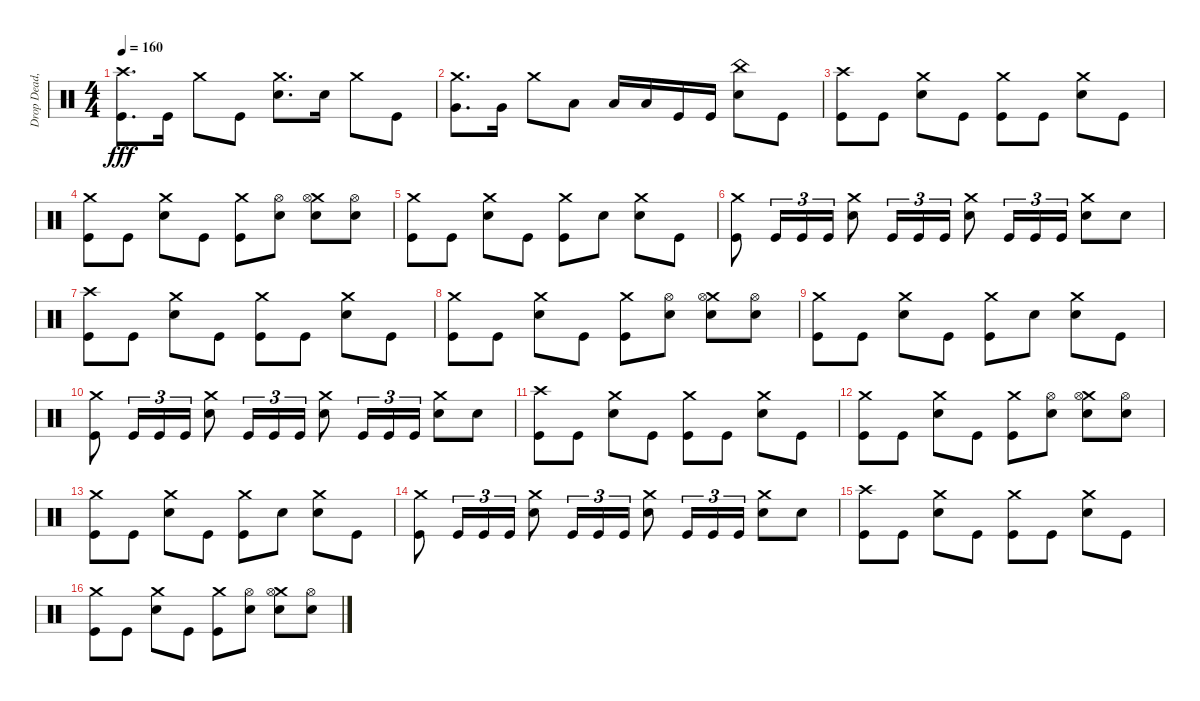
\track ("Drop Dead, Johnny" "Drop Dead,") {instrument percussion}
\staff {score}
\articulation defaults
\ts (4 4)
\tempo 160
\clef neutral
\ks c
("Crash high (hit)" "Kick (hit)").8{d dy fff} "Kick (hit)".16 "Crash medium (hit)".8 "Kick (hit)".8 ("Crash medium (hit)" "Electric Snare (hit)").8{d} "Electric Snare (hit)".16 "Crash medium (hit)".8 "Kick (hit)".8 |
("Crash medium (hit)" "Very Low Tom (hit)").8{d} "Very Low Tom (hit)".16 "Crash medium (hit)".8 "Low Floor Tom (hit)".8 "Low Floor Tom (hit)".16 "Low Floor Tom (hit)".16 "Kick (hit)".16 "Kick (hit)".16 ("China (hit)" "Electric Snare (hit)").8 "Kick (hit)".8 |
("Crash high (hit)" "Kick (hit)").8 "Kick (hit)".8 ("Crash medium (hit)" "Electric Snare (hit)").8 "Kick (hit)".8 ("Crash medium (hit)" "Kick (hit)").8 "Kick (hit)".8 ("Crash medium (hit)" "Electric Snare (hit)").8 "Kick (hit)".8 |
("Crash medium (hit)" "Kick (hit)").8 "Kick (hit)".8 ("Crash medium (hit)" "Electric Snare (hit)").8 "Kick (hit)".8 ("Crash medium (hit)" "Kick (hit)").8 ("Hi-Hat (open)" "Electric Snare (hit)").8 ("Crash medium (hit)" "Hi-Hat (open)" "Electric Snare (hit)").8 ("Hi-Hat (open)" "Electric Snare (hit)").8 |
("Crash medium (hit)" "Kick (hit)").8 "Kick (hit)".8 ("Crash medium (hit)" "Electric Snare (hit)").8 "Kick (hit)".8 ("Crash medium (hit)" "Kick (hit)").8 "Electric Snare (hit)".8 ("Crash medium (hit)" "Electric Snare (hit)").8 "Kick (hit)".8 |
("Crash medium (hit)" "Kick (hit)").8 "Kick (hit)".16{tu (3 2)} "Kick (hit)".16{tu (3 2)} "Kick (hit)".16{tu (3 2)} ("Crash medium (hit)" "Electric Snare (hit)").8 "Kick (hit)".16{tu (3 2)} "Kick (hit)".16{tu (3 2)} "Kick (hit)".16{tu (3 2)} ("Crash medium (hit)" "Electric Snare (hit)").8 "Kick (hit)".16{tu (3 2)} "Kick (hit)".16{tu (3 2)} "Kick (hit)".16{tu (3 2)} ("Crash medium (hit)" "Electric Snare (hit)").8 "Electric Snare (hit)".8 |
("Crash high (hit)" "Kick (hit)").8 "Kick (hit)".8 ("Crash medium (hit)" "Electric Snare (hit)").8 "Kick (hit)".8 ("Crash medium (hit)" "Kick (hit)").8 "Kick (hit)".8 ("Crash medium (hit)" "Electric Snare (hit)").8 "Kick (hit)".8 |
("Crash medium (hit)" "Kick (hit)").8 "Kick (hit)".8 ("Crash medium (hit)" "Electric Snare (hit)").8 "Kick (hit)".8 ("Crash medium (hit)" "Kick (hit)").8 ("Hi-Hat (open)" "Electric Snare (hit)").8 ("Crash medium (hit)" "Hi-Hat (open)" "Electric Snare (hit)").8 ("Hi-Hat (open)" "Electric Snare (hit)").8 |
("Crash medium (hit)" "Kick (hit)").8 "Kick (hit)".8 ("Crash medium (hit)" "Electric Snare (hit)").8 "Kick (hit)".8 ("Crash medium (hit)" "Kick (hit)").8 "Electric Snare (hit)".8 ("Crash medium (hit)" "Electric Snare (hit)").8 "Kick (hit)".8 |
("Crash medium (hit)" "Kick (hit)").8 "Kick (hit)".16{tu (3 2)} "Kick (hit)".16{tu (3 2)} "Kick (hit)".16{tu (3 2)} ("Crash medium (hit)" "Electric Snare (hit)").8 "Kick (hit)".16{tu (3 2)} "Kick (hit)".16{tu (3 2)} "Kick (hit)".16{tu (3 2)} ("Crash medium (hit)" "Electric Snare (hit)").8 "Kick (hit)".16{tu (3 2)} "Kick (hit)".16{tu (3 2)} "Kick (hit)".16{tu (3 2)} ("Crash medium (hit)" "Electric Snare (hit)").8 "Electric Snare (hit)".8 |
("Crash high (hit)" "Kick (hit)").8 "Kick (hit)".8 ("Crash medium (hit)" "Electric Snare (hit)").8 "Kick (hit)".8 ("Crash medium (hit)" "Kick (hit)").8 "Kick (hit)".8 ("Crash medium (hit)" "Electric Snare (hit)").8 "Kick (hit)".8 |
("Crash medium (hit)" "Kick (hit)").8 "Kick (hit)".8 ("Crash medium (hit)" "Electric Snare (hit)").8 "Kick (hit)".8 ("Crash medium (hit)" "Kick (hit)").8 ("Hi-Hat (open)" "Electric Snare (hit)").8 ("Crash medium (hit)" "Hi-Hat (open)" "Electric Snare (hit)").8 ("Hi-Hat (open)" "Electric Snare (hit)").8 |
("Crash medium (hit)" "Kick (hit)").8 "Kick (hit)".8 ("Crash medium (hit)" "Electric Snare (hit)").8 "Kick (hit)".8 ("Crash medium (hit)" "Kick (hit)").8 "Electric Snare (hit)".8 ("Crash medium (hit)" "Electric Snare (hit)").8 "Kick (hit)".8 |
("Crash medium (hit)" "Kick (hit)").8 "Kick (hit)".16{tu (3 2)} "Kick (hit)".16{tu (3 2)} "Kick (hit)".16{tu (3 2)} ("Crash medium (hit)" "Electric Snare (hit)").8 "Kick (hit)".16{tu (3 2)} "Kick (hit)".16{tu (3 2)} "Kick (hit)".16{tu (3 2)} ("Crash medium (hit)" "Electric Snare (hit)").8 "Kick (hit)".16{tu (3 2)} "Kick (hit)".16{tu (3 2)} "Kick (hit)".16{tu (3 2)} ("Crash medium (hit)" "Electric Snare (hit)").8 "Electric Snare (hit)".8 |
("Crash high (hit)" "Kick (hit)").8 "Kick (hit)".8 ("Crash medium (hit)" "Electric Snare (hit)").8 "Kick (hit)".8 ("Crash medium (hit)" "Kick (hit)").8 "Kick (hit)".8 ("Crash medium (hit)" "Electric Snare (hit)").8 "Kick (hit)".8 |
("Crash medium (hit)" "Kick (hit)").8 "Kick (hit)".8 ("Crash medium (hit)" "Electric Snare (hit)").8 "Kick (hit)".8 ("Crash medium (hit)" "Kick (hit)").8 ("Hi-Hat (open)" "Electric Snare (hit)").8 ("Crash medium (hit)" "Hi-Hat (open)" "Electric Snare (hit)").8 ("Hi-Hat (open)" "Electric Snare (hit)").8
